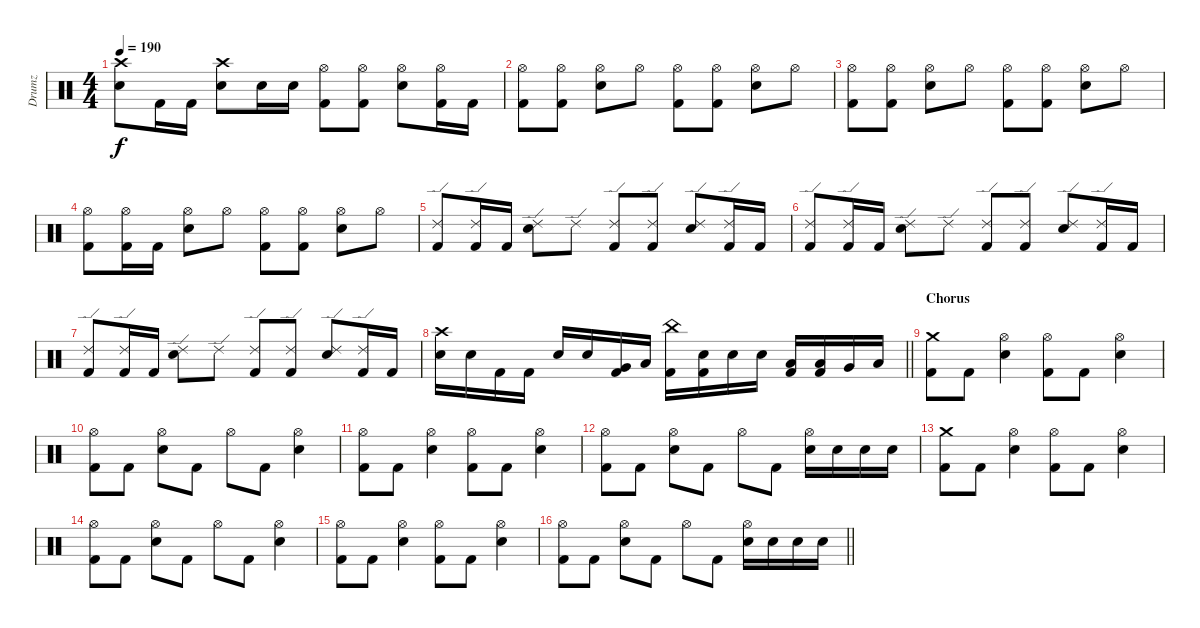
\track ("Drumz" "Drumz") {instrument percussion}
\staff {score}
\articulation defaults
\ts (4 4)
\tempo 190
\clef neutral
\ks c
("Crash high (hit)" "Snare (hit) 2").8{dy f} "Kick (hit) 2".16 "Kick (hit) 2".16 ("Crash high (hit)" "Snare (hit) 2").8 "Snare (hit) 2".16 "Snare (hit) 2".16 ("Hi-Hat (open)" "Kick (hit) 2").8 ("Hi-Hat (open)" "Kick (hit) 2").8 ("Snare (hit) 2" "Hi-Hat (open)").8 ("Hi-Hat (open)" "Kick (hit) 2").16 "Kick (hit) 2".16 |
("Hi-Hat (open)" "Kick (hit) 2").8 ("Hi-Hat (open)" "Kick (hit) 2").8 ("Snare (hit) 2" "Hi-Hat (open)").8 "Hi-Hat (open)".8 ("Hi-Hat (open)" "Kick (hit) 2").8 ("Hi-Hat (open)" "Kick (hit) 2").8 ("Snare (hit) 2" "Hi-Hat (open)").8 "Hi-Hat (open)".8 |
("Hi-Hat (open)" "Kick (hit) 2").8 ("Hi-Hat (open)" "Kick (hit) 2").8 ("Snare (hit) 2" "Hi-Hat (open)").8 "Hi-Hat (open)".8 ("Hi-Hat (open)" "Kick (hit) 2").8 ("Hi-Hat (open)" "Kick (hit) 2").8 ("Snare (hit) 2" "Hi-Hat (open)").8 "Hi-Hat (open)".8 |
("Hi-Hat (open)" "Kick (hit) 2").8 ("Hi-Hat (open)" "Kick (hit) 2").16 "Kick (hit) 2".16 ("Snare (hit) 2" "Hi-Hat (open)").8 "Hi-Hat (open)".8 ("Hi-Hat (open)" "Kick (hit) 2").8 ("Hi-Hat (open)" "Kick (hit) 2").8 ("Snare (hit) 2" "Hi-Hat (open)").8 "Hi-Hat (open)".8 |
("Ride (edge) 2" "Kick (hit) 2").8 ("Ride (edge) 2" "Kick (hit) 2").16 "Kick (hit) 2".16 ("Ride (edge) 2" "Snare (hit) 2").8 "Ride (edge) 2".8 ("Ride (edge) 2" "Kick (hit) 2").8 ("Ride (edge) 2" "Kick (hit) 2").8 ("Ride (edge) 2" "Snare (hit) 2").8 ("Ride (edge) 2" "Kick (hit) 2").16 "Kick (hit) 2".16 |
("Ride (edge) 2" "Kick (hit) 2").8 ("Ride (edge) 2" "Kick (hit) 2").16 "Kick (hit) 2".16 ("Ride (edge) 2" "Snare (hit) 2").8 "Ride (edge) 2".8 ("Ride (edge) 2" "Kick (hit) 2").8 ("Ride (edge) 2" "Kick (hit) 2").8 ("Ride (edge) 2" "Snare (hit) 2").8 ("Ride (edge) 2" "Kick (hit) 2").16 "Kick (hit) 2".16 |
("Ride (edge) 2" "Kick (hit) 2").8 ("Ride (edge) 2" "Kick (hit) 2").16 "Kick (hit) 2".16 ("Ride (edge) 2" "Snare (hit) 2").8 "Ride (edge) 2".8 ("Ride (edge) 2" "Kick (hit) 2").8 ("Ride (edge) 2" "Kick (hit) 2").8 ("Ride (edge) 2" "Snare (hit) 2").8 ("Ride (edge) 2" "Kick (hit) 2").16 "Kick (hit) 2".16 |
\barLineRight lightlight
("Crash high (hit)" "Snare (hit) 2").16 "Snare (hit) 2".16 "Kick (hit) 2".16 "Kick (hit) 2".16 "Snare (hit) 2".16 "Snare (hit) 2".16 ("Very Low Tom (hit)" "Kick (hit) 2").16 "Low Floor Tom (hit)".16 ("China (hit)" "Kick (hit) 2").16 ("Snare (hit) 2" "Kick (hit) 2").16 "Snare (hit) 2".16 "Snare (hit) 2".16 ("Low Tom (hit)" "Kick (hit) 2").16 ("Low Tom (hit)" "Kick (hit) 2").16 "Very Low Tom (hit)".16 "Low Floor Tom (hit)".16 |
\section ("" "Chorus")
("Crash medium (hit)" "Kick (hit) 2").8 "Kick (hit) 2".8 ("Snare (hit) 2" "Hi-Hat (open)").4 ("Hi-Hat (open)" "Kick (hit) 2").8 "Kick (hit) 2".8 ("Snare (hit) 2" "Hi-Hat (open)").4 |
("Hi-Hat (open)" "Kick (hit) 2").8 "Kick (hit) 2".8 ("Snare (hit) 2" "Hi-Hat (open)").8 "Kick (hit) 2".8 "Hi-Hat (open)".8 "Kick (hit) 2".8 ("Snare (hit) 2" "Hi-Hat (open)").4 |
("Hi-Hat (open)" "Kick (hit) 2").8 "Kick (hit) 2".8 ("Snare (hit) 2" "Hi-Hat (open)").4 ("Hi-Hat (open)" "Kick (hit) 2").8 "Kick (hit) 2".8 ("Snare (hit) 2" "Hi-Hat (open)").4 |
("Hi-Hat (open)" "Kick (hit) 2").8 "Kick (hit) 2".8 ("Snare (hit) 2" "Hi-Hat (open)").8 "Kick (hit) 2".8 "Hi-Hat (open)".8 "Kick (hit) 2".8 ("Snare (hit) 2" "Hi-Hat (open)").16 "Snare (hit) 2".16 "Snare (hit) 2".16 "Snare (hit) 2".16 |
("Crash medium (hit)" "Kick (hit) 2").8 "Kick (hit) 2".8 ("Snare (hit) 2" "Hi-Hat (open)").4 ("Hi-Hat (open)" "Kick (hit) 2").8 "Kick (hit) 2".8 ("Snare (hit) 2" "Hi-Hat (open)").4 |
("Hi-Hat (open)" "Kick (hit) 2").8 "Kick (hit) 2".8 ("Snare (hit) 2" "Hi-Hat (open)").8 "Kick (hit) 2".8 "Hi-Hat (open)".8 "Kick (hit) 2".8 ("Snare (hit) 2" "Hi-Hat (open)").4 |
("Hi-Hat (open)" "Kick (hit) 2").8 "Kick (hit) 2".8 ("Snare (hit) 2" "Hi-Hat (open)").4 ("Hi-Hat (open)" "Kick (hit) 2").8 "Kick (hit) 2".8 ("Snare (hit) 2" "Hi-Hat (open)").4 |
\barLineRight lightlight
("Hi-Hat (open)" "Kick (hit) 2").8 "Kick (hit) 2".8 ("Snare (hit) 2" "Hi-Hat (open)").8 "Kick (hit) 2".8 "Hi-Hat (open)".8 "Kick (hit) 2".8 ("Snare (hit) 2" "Hi-Hat (open)").16 "Snare (hit) 2".16 "Snare (hit) 2".16 "Snare (hit) 2".16
